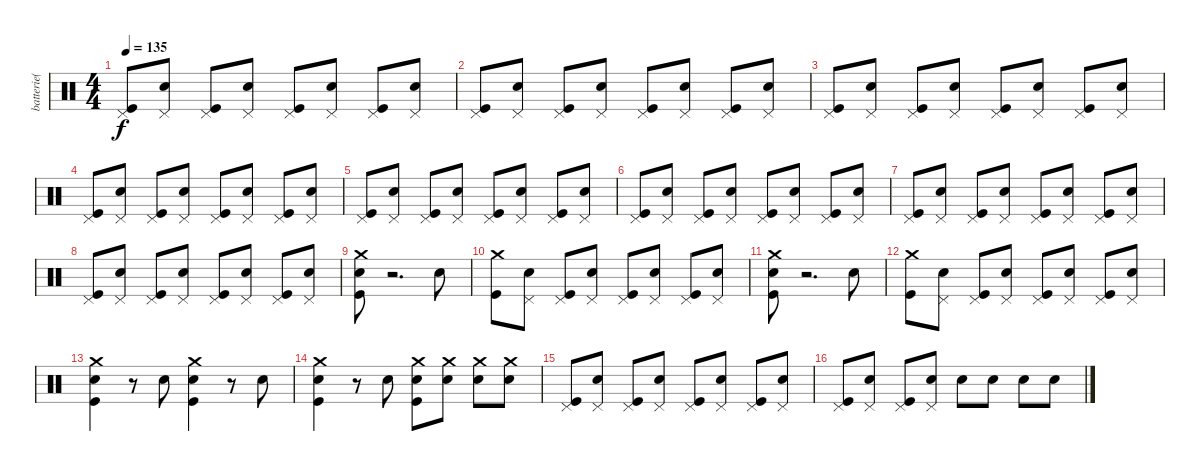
\track ("batterie( Yureesh )" "batterie( ") {instrument percussion}
\staff {score}
\articulation defaults
\ts (4 4)
\tempo 135
\clef neutral
\ks c
("Pedal Hi-Hat (hit)" "Kick (hit)").8{dy f} ("Pedal Hi-Hat (hit)" "Snare (hit) 2").8 ("Pedal Hi-Hat (hit)" "Kick (hit)").8 ("Pedal Hi-Hat (hit)" "Snare (hit) 2").8 ("Pedal Hi-Hat (hit)" "Kick (hit)").8 ("Pedal Hi-Hat (hit)" "Snare (hit) 2").8 ("Pedal Hi-Hat (hit)" "Kick (hit)").8 ("Pedal Hi-Hat (hit)" "Snare (hit) 2").8 |
("Pedal Hi-Hat (hit)" "Kick (hit)").8 ("Pedal Hi-Hat (hit)" "Snare (hit) 2").8 ("Pedal Hi-Hat (hit)" "Kick (hit)").8 ("Pedal Hi-Hat (hit)" "Snare (hit) 2").8 ("Pedal Hi-Hat (hit)" "Kick (hit)").8 ("Pedal Hi-Hat (hit)" "Snare (hit) 2").8 ("Pedal Hi-Hat (hit)" "Kick (hit)").8 ("Pedal Hi-Hat (hit)" "Snare (hit) 2").8 |
("Pedal Hi-Hat (hit)" "Kick (hit)").8 ("Pedal Hi-Hat (hit)" "Snare (hit) 2").8 ("Pedal Hi-Hat (hit)" "Kick (hit)").8 ("Pedal Hi-Hat (hit)" "Snare (hit) 2").8 ("Pedal Hi-Hat (hit)" "Kick (hit)").8 ("Pedal Hi-Hat (hit)" "Snare (hit) 2").8 ("Pedal Hi-Hat (hit)" "Kick (hit)").8 ("Pedal Hi-Hat (hit)" "Snare (hit) 2").8 |
("Pedal Hi-Hat (hit)" "Kick (hit)").8 ("Pedal Hi-Hat (hit)" "Snare (hit) 2").8 ("Pedal Hi-Hat (hit)" "Kick (hit)").8 ("Pedal Hi-Hat (hit)" "Snare (hit) 2").8 ("Pedal Hi-Hat (hit)" "Kick (hit)").8 ("Pedal Hi-Hat (hit)" "Snare (hit) 2").8 ("Pedal Hi-Hat (hit)" "Kick (hit)").8 ("Pedal Hi-Hat (hit)" "Snare (hit) 2").8 |
("Pedal Hi-Hat (hit)" "Kick (hit)").8 ("Pedal Hi-Hat (hit)" "Snare (hit) 2").8 ("Pedal Hi-Hat (hit)" "Kick (hit)").8 ("Pedal Hi-Hat (hit)" "Snare (hit) 2").8 ("Pedal Hi-Hat (hit)" "Kick (hit)").8 ("Pedal Hi-Hat (hit)" "Snare (hit) 2").8 ("Pedal Hi-Hat (hit)" "Kick (hit)").8 ("Pedal Hi-Hat (hit)" "Snare (hit) 2").8 |
("Pedal Hi-Hat (hit)" "Kick (hit)").8 ("Pedal Hi-Hat (hit)" "Snare (hit) 2").8 ("Pedal Hi-Hat (hit)" "Kick (hit)").8 ("Pedal Hi-Hat (hit)" "Snare (hit) 2").8 ("Pedal Hi-Hat (hit)" "Kick (hit)").8 ("Pedal Hi-Hat (hit)" "Snare (hit) 2").8 ("Pedal Hi-Hat (hit)" "Kick (hit)").8 ("Pedal Hi-Hat (hit)" "Snare (hit) 2").8 |
("Pedal Hi-Hat (hit)" "Kick (hit)").8 ("Pedal Hi-Hat (hit)" "Snare (hit) 2").8 ("Pedal Hi-Hat (hit)" "Kick (hit)").8 ("Pedal Hi-Hat (hit)" "Snare (hit) 2").8 ("Pedal Hi-Hat (hit)" "Kick (hit)").8 ("Pedal Hi-Hat (hit)" "Snare (hit) 2").8 ("Pedal Hi-Hat (hit)" "Kick (hit)").8 ("Pedal Hi-Hat (hit)" "Snare (hit) 2").8 |
("Pedal Hi-Hat (hit)" "Kick (hit)").8 ("Pedal Hi-Hat (hit)" "Snare (hit) 2").8 ("Pedal Hi-Hat (hit)" "Kick (hit)").8 ("Pedal Hi-Hat (hit)" "Snare (hit) 2").8 ("Pedal Hi-Hat (hit)" "Kick (hit)").8 ("Pedal Hi-Hat (hit)" "Snare (hit) 2").8 ("Pedal Hi-Hat (hit)" "Kick (hit)").8 ("Pedal Hi-Hat (hit)" "Snare (hit) 2").8 |
("Crash medium (hit)" "Snare (hit) 2" "Kick (hit)").8 r.2{d} "Snare (hit) 2".8 |
("Crash medium (hit)" "Kick (hit)").8 ("Pedal Hi-Hat (hit)" "Snare (hit) 2").8 ("Pedal Hi-Hat (hit)" "Kick (hit)").8 ("Pedal Hi-Hat (hit)" "Snare (hit) 2").8 ("Pedal Hi-Hat (hit)" "Kick (hit)").8 ("Pedal Hi-Hat (hit)" "Snare (hit) 2").8 ("Pedal Hi-Hat (hit)" "Kick (hit)").8 ("Pedal Hi-Hat (hit)" "Snare (hit) 2").8 |
("Crash medium (hit)" "Snare (hit) 2" "Kick (hit)").8 r.2{d} "Snare (hit) 2".8 |
("Crash medium (hit)" "Kick (hit)").8 ("Pedal Hi-Hat (hit)" "Snare (hit) 2").8 ("Pedal Hi-Hat (hit)" "Kick (hit)").8 ("Pedal Hi-Hat (hit)" "Snare (hit) 2").8 ("Pedal Hi-Hat (hit)" "Kick (hit)").8 ("Pedal Hi-Hat (hit)" "Snare (hit) 2").8 ("Pedal Hi-Hat (hit)" "Kick (hit)").8 ("Pedal Hi-Hat (hit)" "Snare (hit) 2").8 |
("Crash medium (hit)" "Snare (hit) 2" "Kick (hit)").4 r.8 "Snare (hit) 2".8 ("Crash medium (hit)" "Snare (hit) 2" "Kick (hit)").4 r.8 "Snare (hit) 2".8 |
("Crash medium (hit)" "Snare (hit) 2" "Kick (hit)").4 r.8 "Snare (hit) 2".8 ("Crash medium (hit)" "Snare (hit) 2" "Kick (hit)").8 ("Crash medium (hit)" "Snare (hit) 2").8 ("Crash medium (hit)" "Snare (hit) 2").8 ("Crash medium (hit)" "Snare (hit) 2").8 |
("Pedal Hi-Hat (hit)" "Kick (hit)").8 ("Pedal Hi-Hat (hit)" "Snare (hit) 2").8 ("Pedal Hi-Hat (hit)" "Kick (hit)").8 ("Pedal Hi-Hat (hit)" "Snare (hit) 2").8 ("Pedal Hi-Hat (hit)" "Kick (hit)").8 ("Pedal Hi-Hat (hit)" "Snare (hit) 2").8 ("Pedal Hi-Hat (hit)" "Kick (hit)").8 ("Pedal Hi-Hat (hit)" "Snare (hit) 2").8 |
("Pedal Hi-Hat (hit)" "Kick (hit)").8 ("Pedal Hi-Hat (hit)" "Snare (hit) 2").8 ("Pedal Hi-Hat (hit)" "Kick (hit)").8 ("Pedal Hi-Hat (hit)" "Snare (hit) 2").8 "Snare (hit) 2".8 "Snare (hit) 2".8 "Snare (hit) 2".8 "Snare (hit) 2".8
